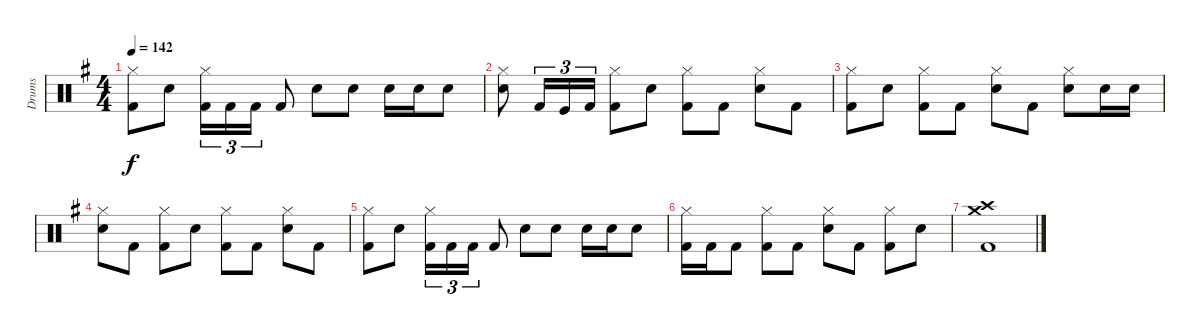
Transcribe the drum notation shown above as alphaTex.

\track ("Drums" "Drums") {instrument percussion}
\staff {score}
\articulation defaults
\ts (4 4)
\tempo 142
\clef neutral
\ks g
("Kick (hit) 2" "Hi-Hat (closed)").8{dy f} "Electric Snare (hit)".8 ("Kick (hit) 2" "Hi-Hat (closed)").16{tu (3 2)} "Kick (hit) 2".16{tu (3 2)} "Kick (hit) 2".16{tu (3 2)} "Kick (hit) 2".8 "Electric Snare (hit)".8 "Electric Snare (hit)".8 "Electric Snare (hit)".16 "Electric Snare (hit)".16 "Electric Snare (hit)".8 |
("Electric Snare (hit)" "Hi-Hat (closed)").8 "Kick (hit) 2".16{tu (3 2)} "Kick (hit)".16{tu (3 2)} "Kick (hit) 2".16{tu (3 2)} ("Kick (hit) 2" "Hi-Hat (closed)").8 "Electric Snare (hit)".8 ("Kick (hit) 2" "Hi-Hat (closed)").8 "Kick (hit) 2".8 ("Electric Snare (hit)" "Hi-Hat (closed)").8 "Kick (hit) 2".8 |
("Kick (hit) 2" "Hi-Hat (closed)").8 "Electric Snare (hit)".8 ("Kick (hit) 2" "Hi-Hat (closed)").8 "Kick (hit) 2".8 ("Electric Snare (hit)" "Hi-Hat (closed)").8 "Kick (hit) 2".8 ("Electric Snare (hit)" "Hi-Hat (closed)").8 "Electric Snare (hit)".16 "Electric Snare (hit)".16 |
("Electric Snare (hit)" "Hi-Hat (closed)").8 "Kick (hit) 2".8 ("Kick (hit) 2" "Hi-Hat (closed)").8 "Electric Snare (hit)".8 ("Kick (hit) 2" "Hi-Hat (closed)").8 "Kick (hit) 2".8 ("Electric Snare (hit)" "Hi-Hat (closed)").8 "Kick (hit) 2".8 |
("Kick (hit) 2" "Hi-Hat (closed)").8 "Electric Snare (hit)".8 ("Kick (hit) 2" "Hi-Hat (closed)").16{tu (3 2)} "Kick (hit) 2".16{tu (3 2)} "Kick (hit) 2".16{tu (3 2)} "Kick (hit) 2".8 "Electric Snare (hit)".8 "Electric Snare (hit)".8 "Electric Snare (hit)".16 "Electric Snare (hit)".16 "Electric Snare (hit)".8 |
("Kick (hit) 2" "Hi-Hat (closed)").16 "Kick (hit) 2".16 "Kick (hit) 2".8 ("Kick (hit) 2" "Hi-Hat (closed)").8 "Kick (hit) 2".8 ("Electric Snare (hit)" "Hi-Hat (closed)").8 "Kick (hit) 2".8 ("Kick (hit) 2" "Hi-Hat (closed)").8 "Electric Snare (hit)".8 |
("Kick (hit) 2" "Crash medium (hit)" "Crash high (hit)").1
